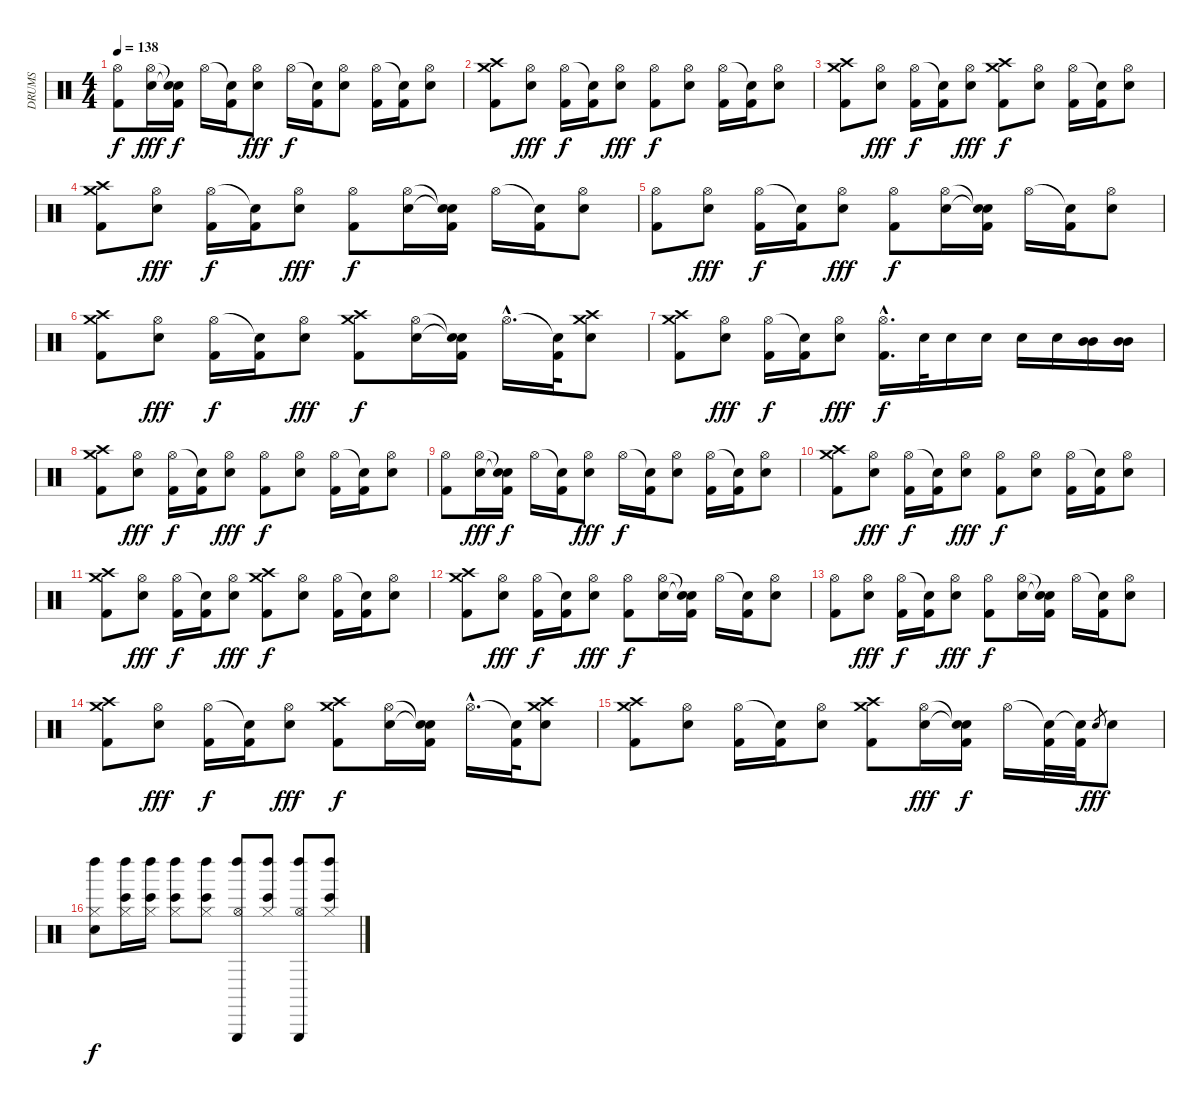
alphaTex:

\track ("DRUMS" "DRUMS") {instrument percussion}
\staff {score}
\articulation defaults
\ts (4 4)
\tempo 138
\clef neutral
\ks c
("Hi-Hat (open)" "Kick (hit) 2").8{dy f} ("Hi-Hat (open)" "Electric Snare (hit)").16{dy fff} ("Snare (hit)"{t} "Snare (hit)"{t} "Kick (hit) 2").16{dy f} "Hi-Hat (open)".16 ("Snare (hit)"{t} "Kick (hit) 2").16 ("Hi-Hat (open)" "Electric Snare (hit)").8{dy fff} "Hi-Hat (open)".16{dy f} ("Snare (hit)"{t} "Kick (hit) 2").16 ("Hi-Hat (open)" "Electric Snare (hit)").8 ("Hi-Hat (open)" "Kick (hit) 2").16 ("Snare (hit)"{t} "Kick (hit) 2").16 ("Hi-Hat (open)" "Electric Snare (hit)").8 |
("Crash high (hit)" "Crash medium (hit)" "Kick (hit) 2").8 ("Hi-Hat (open)" "Electric Snare (hit)").8{dy fff} ("Hi-Hat (open)" "Kick (hit) 2").16{dy f} ("Snare (hit)"{t} "Kick (hit) 2").16 ("Hi-Hat (open)" "Electric Snare (hit)").8{dy fff} ("Hi-Hat (open)" "Kick (hit) 2").8{dy f} ("Hi-Hat (open)" "Electric Snare (hit)").8 ("Hi-Hat (open)" "Kick (hit) 2").16 ("Snare (hit)"{t} "Kick (hit) 2").16 ("Hi-Hat (open)" "Electric Snare (hit)").8 |
("Crash high (hit)" "Crash medium (hit)" "Kick (hit) 2").8 ("Hi-Hat (open)" "Electric Snare (hit)").8{dy fff} ("Hi-Hat (open)" "Kick (hit) 2").16{dy f} ("Snare (hit)"{t} "Kick (hit) 2").16 ("Hi-Hat (open)" "Electric Snare (hit)").8{dy fff} ("Crash high (hit)" "Crash medium (hit)" "Kick (hit) 2").8{dy f} ("Hi-Hat (open)" "Electric Snare (hit)").8 ("Hi-Hat (open)" "Kick (hit) 2").16 ("Snare (hit)"{t} "Kick (hit) 2").16 ("Hi-Hat (open)" "Electric Snare (hit)").8 |
("Crash high (hit)" "Crash medium (hit)" "Kick (hit) 2").8 ("Hi-Hat (open)" "Electric Snare (hit)").8{dy fff} ("Hi-Hat (open)" "Kick (hit) 2").16{dy f} ("Snare (hit)"{t} "Kick (hit) 2").16 ("Hi-Hat (open)" "Electric Snare (hit)").8{dy fff} ("Hi-Hat (open)" "Kick (hit) 2").8{dy f} ("Hi-Hat (open)" "Electric Snare (hit)").16 ("Snare (hit)"{t} "Snare (hit)"{t} "Kick (hit) 2").16 "Hi-Hat (open)".16 ("Snare (hit)"{t} "Kick (hit) 2").16 ("Hi-Hat (open)" "Electric Snare (hit)").8 |
("Hi-Hat (open)" "Kick (hit) 2").8 ("Hi-Hat (open)" "Electric Snare (hit)").8{dy fff} ("Hi-Hat (open)" "Kick (hit) 2").16{dy f} ("Snare (hit)"{t} "Kick (hit) 2").16 ("Hi-Hat (open)" "Electric Snare (hit)").8{dy fff} ("Hi-Hat (open)" "Kick (hit) 2").8{dy f} ("Hi-Hat (open)" "Electric Snare (hit)").16 ("Snare (hit)"{t} "Snare (hit)"{t} "Kick (hit) 2").16 "Hi-Hat (open)".16 ("Snare (hit)"{t} "Kick (hit) 2").16 ("Hi-Hat (open)" "Electric Snare (hit)").8 |
("Crash medium (hit)" "Crash high (hit)" "Kick (hit) 2").8 ("Hi-Hat (open)" "Electric Snare (hit)").8{dy fff} ("Hi-Hat (open)" "Kick (hit) 2").16{dy f} ("Snare (hit)"{t} "Kick (hit) 2").16 ("Hi-Hat (open)" "Electric Snare (hit)").8{dy fff} ("Crash high (hit)" "Crash medium (hit)" "Kick (hit) 2").8{dy f} ("Hi-Hat (open)" "Electric Snare (hit)").16 ("Snare (hit)"{t} "Snare (hit)"{t} "Kick (hit) 2").16 "Hi-Hat (open)"{hac}.16{d} ("Snare (hit)"{t} "Kick (hit) 2").32 ("Crash high (hit)" "Crash medium (hit)" "Electric Snare (hit)").8 |
("Crash high (hit)" "Crash medium (hit)" "Kick (hit) 2").8 ("Hi-Hat (open)" "Electric Snare (hit)").8{dy fff} ("Hi-Hat (open)" "Kick (hit) 2").16{dy f} ("Snare (hit)"{t} "Kick (hit) 2").16 ("Hi-Hat (open)" "Electric Snare (hit)").8{dy fff} ("Hi-Hat (open)"{hac} "Kick (hit) 2"{hac}).16{d dy f} "Electric Snare (hit)".32 "Electric Snare (hit)".16 "Electric Snare (hit)".16 "Electric Snare (hit)".16 "Electric Snare (hit)".16 ("Mid Tom (hit)" "Mid Tom (hit)").16 ("Mid Tom (hit)" "Mid Tom (hit)").16 |
("Crash medium (hit)" "Crash high (hit)" "Kick (hit) 2").8 ("Hi-Hat (open)" "Electric Snare (hit)").8{dy fff} ("Hi-Hat (open)" "Kick (hit) 2").16{dy f} ("Snare (hit)"{t} "Kick (hit) 2").16 ("Hi-Hat (open)" "Electric Snare (hit)").8{dy fff} ("Hi-Hat (open)" "Kick (hit) 2").8{dy f} ("Hi-Hat (open)" "Electric Snare (hit)").8 ("Hi-Hat (open)" "Kick (hit) 2").16 ("Snare (hit)"{t} "Kick (hit) 2").16 ("Hi-Hat (open)" "Electric Snare (hit)").8 |
("Hi-Hat (open)" "Kick (hit) 2").8 ("Hi-Hat (open)" "Electric Snare (hit)").16{dy fff} ("Snare (hit)"{t} "Snare (hit)"{t} "Kick (hit) 2").16{dy f} "Hi-Hat (open)".16 ("Snare (hit)"{t} "Kick (hit) 2").16 ("Hi-Hat (open)" "Electric Snare (hit)").8{dy fff} "Hi-Hat (open)".16{dy f} ("Snare (hit)"{t} "Kick (hit) 2").16 ("Hi-Hat (open)" "Electric Snare (hit)").8 ("Hi-Hat (open)" "Kick (hit) 2").16 ("Snare (hit)"{t} "Kick (hit) 2").16 ("Hi-Hat (open)" "Electric Snare (hit)").8 |
("Crash high (hit)" "Crash medium (hit)" "Kick (hit) 2").8 ("Hi-Hat (open)" "Electric Snare (hit)").8{dy fff} ("Hi-Hat (open)" "Kick (hit) 2").16{dy f} ("Snare (hit)"{t} "Kick (hit) 2").16 ("Hi-Hat (open)" "Electric Snare (hit)").8{dy fff} ("Hi-Hat (open)" "Kick (hit) 2").8{dy f} ("Hi-Hat (open)" "Electric Snare (hit)").8 ("Hi-Hat (open)" "Kick (hit) 2").16 ("Snare (hit)"{t} "Kick (hit) 2").16 ("Hi-Hat (open)" "Electric Snare (hit)").8 |
("Crash high (hit)" "Crash medium (hit)" "Kick (hit) 2").8 ("Hi-Hat (open)" "Electric Snare (hit)").8{dy fff} ("Hi-Hat (open)" "Kick (hit) 2").16{dy f} ("Snare (hit)"{t} "Kick (hit) 2").16 ("Hi-Hat (open)" "Electric Snare (hit)").8{dy fff} ("Crash high (hit)" "Crash medium (hit)" "Kick (hit) 2").8{dy f} ("Hi-Hat (open)" "Electric Snare (hit)").8 ("Hi-Hat (open)" "Kick (hit) 2").16 ("Snare (hit)"{t} "Kick (hit) 2").16 ("Hi-Hat (open)" "Electric Snare (hit)").8 |
("Crash high (hit)" "Crash medium (hit)" "Kick (hit) 2").8 ("Hi-Hat (open)" "Electric Snare (hit)").8{dy fff} ("Hi-Hat (open)" "Kick (hit) 2").16{dy f} ("Snare (hit)"{t} "Kick (hit) 2").16 ("Hi-Hat (open)" "Electric Snare (hit)").8{dy fff} ("Hi-Hat (open)" "Kick (hit) 2").8{dy f} ("Hi-Hat (open)" "Electric Snare (hit)").16 ("Snare (hit)"{t} "Snare (hit)"{t} "Kick (hit) 2").16 "Hi-Hat (open)".16 ("Snare (hit)"{t} "Kick (hit) 2").16 ("Hi-Hat (open)" "Electric Snare (hit)").8 |
("Hi-Hat (open)" "Kick (hit) 2").8 ("Hi-Hat (open)" "Electric Snare (hit)").8{dy fff} ("Hi-Hat (open)" "Kick (hit) 2").16{dy f} ("Snare (hit)"{t} "Kick (hit) 2").16 ("Hi-Hat (open)" "Electric Snare (hit)").8{dy fff} ("Hi-Hat (open)" "Kick (hit) 2").8{dy f} ("Hi-Hat (open)" "Electric Snare (hit)").16 ("Snare (hit)"{t} "Snare (hit)"{t} "Kick (hit) 2").16 "Hi-Hat (open)".16 ("Snare (hit)"{t} "Kick (hit) 2").16 ("Hi-Hat (open)" "Electric Snare (hit)").8 |
("Crash medium (hit)" "Crash high (hit)" "Kick (hit) 2").8 ("Hi-Hat (open)" "Electric Snare (hit)").8{dy fff} ("Hi-Hat (open)" "Kick (hit) 2").16{dy f} ("Snare (hit)"{t} "Kick (hit) 2").16 ("Hi-Hat (open)" "Electric Snare (hit)").8{dy fff} ("Crash high (hit)" "Crash medium (hit)" "Kick (hit) 2").8{dy f} ("Hi-Hat (open)" "Electric Snare (hit)").16 ("Snare (hit)"{t} "Snare (hit)"{t} "Kick (hit) 2").16 "Hi-Hat (open)"{hac}.16{d} ("Snare (hit)"{t} "Kick (hit) 2").32 ("Crash high (hit)" "Crash medium (hit)" "Electric Snare (hit)").8 |
("Crash high (hit)" "Crash medium (hit)" "Kick (hit) 2").8 ("Hi-Hat (open)" "Electric Snare (hit)").8 ("Hi-Hat (open)" "Kick (hit) 2").16 ("Snare (hit)"{t} "Kick (hit) 2").16 ("Hi-Hat (open)" "Electric Snare (hit)").8 ("Crash high (hit)" "Crash medium (hit)" "Kick (hit) 2").8 ("Hi-Hat (open)" "Electric Snare (hit)").16{dy fff} ("Snare (hit)"{t} "Snare (hit)"{t} "Kick (hit) 2").16{dy f} "Hi-Hat (open)".16 ("Snare (hit)"{t} "Kick (hit) 2").32 ("Snare (hit)"{t} "Kick (hit) 2").32 "Electric Snare (hit)".8{gr dy fff} "Electric Snare (hit)".8 |
("Hi-Hat (closed)" "Electric Snare (hit)" "Left Maraca (hit)").8{dy f} ("Hi-Hat (closed)" "Bongo High (hit)" "Left Maraca (hit)").16 ("Hi-Hat (closed)" "Bongo High (hit)" "Left Maraca (hit)").16 ("Hi-Hat (closed)" "Bongo High (hit)" "Left Maraca (hit)").8 ("Hi-Hat (closed)" "Bongo High (hit)" "Left Maraca (hit)").8 ("Hi-Hat (open)" "Triangle (hit)" "Left Maraca (hit)").8 ("Hi-Hat (closed)" "Bongo High (hit)" "Left Maraca (hit)").8 ("Hi-Hat (open)" "Triangle (hit)" "Left Maraca (hit)").8 ("Hi-Hat (closed)" "Bongo High (hit)" "Left Maraca (hit)").8
